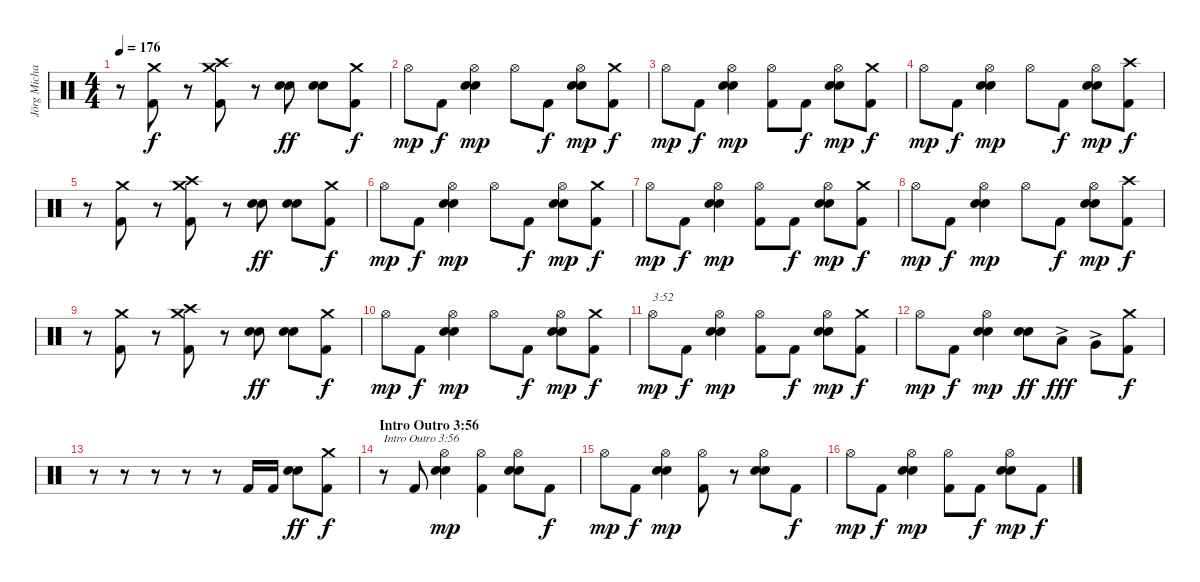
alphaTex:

\track ("Jörg Michael" "Jörg Micha") {instrument percussion}
\staff {score}
\articulation defaults
\ts (4 4)
\tempo 176
\clef neutral
\ks c
r.8{dy f} ("Kick (hit) 2" "Crash medium (hit)").8 r.8 ("Kick (hit) 2" "Crash high (hit)" "Crash medium (hit)").8 r.8 ("Snare (hit) 2" "Electric Snare (hit)").8{dy ff} ("Snare (hit) 2" "Electric Snare (hit)").8 ("Kick (hit) 2" "Crash medium (hit)").8{dy f} |
"Hi-Hat (open)".8{dy mp} "Kick (hit) 2".8{dy f} ("Snare (hit) 2" "Electric Snare (hit)" "Hi-Hat (open)").4{dy mp} "Hi-Hat (open)".8 "Kick (hit) 2".8{dy f} ("Snare (hit) 2" "Electric Snare (hit)" "Hi-Hat (open)").8{dy mp} ("Kick (hit) 2" "Crash medium (hit)").8{dy f} |
"Hi-Hat (open)".8{dy mp} "Kick (hit) 2".8{dy f} ("Snare (hit) 2" "Electric Snare (hit)" "Hi-Hat (open)").4{dy mp} ("Kick (hit) 2" "Hi-Hat (open)").8 "Kick (hit) 2".8{dy f} ("Snare (hit) 2" "Electric Snare (hit)" "Hi-Hat (open)").8{dy mp} ("Kick (hit) 2" "Crash medium (hit)").8{dy f} |
"Hi-Hat (open)".8{dy mp} "Kick (hit) 2".8{dy f} ("Snare (hit) 2" "Electric Snare (hit)" "Hi-Hat (open)").4{dy mp} "Hi-Hat (open)".8 "Kick (hit) 2".8{dy f} ("Snare (hit) 2" "Electric Snare (hit)" "Hi-Hat (open)").8{dy mp} ("Kick (hit) 2" "Crash high (hit)").8{dy f} |
r.8 ("Kick (hit) 2" "Crash medium (hit)").8 r.8 ("Kick (hit) 2" "Crash high (hit)" "Crash medium (hit)").8 r.8 ("Snare (hit) 2" "Electric Snare (hit)").8{dy ff} ("Snare (hit) 2" "Electric Snare (hit)").8 ("Kick (hit) 2" "Crash medium (hit)").8{dy f} |
"Hi-Hat (open)".8{dy mp} "Kick (hit) 2".8{dy f} ("Snare (hit) 2" "Electric Snare (hit)" "Hi-Hat (open)").4{dy mp} "Hi-Hat (open)".8 "Kick (hit) 2".8{dy f} ("Snare (hit) 2" "Electric Snare (hit)" "Hi-Hat (open)").8{dy mp} ("Kick (hit) 2" "Crash medium (hit)").8{dy f} |
"Hi-Hat (open)".8{dy mp} "Kick (hit) 2".8{dy f} ("Snare (hit) 2" "Electric Snare (hit)" "Hi-Hat (open)").4{dy mp} ("Kick (hit) 2" "Hi-Hat (open)").8 "Kick (hit) 2".8{dy f} ("Snare (hit) 2" "Electric Snare (hit)" "Hi-Hat (open)").8{dy mp} ("Kick (hit) 2" "Crash medium (hit)").8{dy f} |
"Hi-Hat (open)".8{dy mp} "Kick (hit) 2".8{dy f} ("Snare (hit) 2" "Electric Snare (hit)" "Hi-Hat (open)").4{dy mp} "Hi-Hat (open)".8 "Kick (hit) 2".8{dy f} ("Snare (hit) 2" "Electric Snare (hit)" "Hi-Hat (open)").8{dy mp} ("Kick (hit) 2" "Crash high (hit)").8{dy f} |
r.8 ("Kick (hit) 2" "Crash medium (hit)").8 r.8 ("Kick (hit) 2" "Crash high (hit)" "Crash medium (hit)").8 r.8 ("Snare (hit) 2" "Electric Snare (hit)").8{dy ff} ("Snare (hit) 2" "Electric Snare (hit)").8 ("Kick (hit) 2" "Crash medium (hit)").8{dy f} |
"Hi-Hat (open)".8{dy mp} "Kick (hit) 2".8{dy f} ("Snare (hit) 2" "Electric Snare (hit)" "Hi-Hat (open)").4{dy mp} "Hi-Hat (open)".8 "Kick (hit) 2".8{dy f} ("Snare (hit) 2" "Electric Snare (hit)" "Hi-Hat (open)").8{dy mp} ("Kick (hit) 2" "Crash medium (hit)").8{dy f} |
"Hi-Hat (open)".8{txt "3:52" dy mp} "Kick (hit) 2".8{dy f} ("Snare (hit) 2" "Electric Snare (hit)" "Hi-Hat (open)").4{dy mp} ("Kick (hit) 2" "Hi-Hat (open)").8 "Kick (hit) 2".8{dy f} ("Snare (hit) 2" "Electric Snare (hit)" "Hi-Hat (open)").8{dy mp} ("Kick (hit) 2" "Crash medium (hit)").8{dy f} |
"Hi-Hat (open)".8{dy mp} "Kick (hit) 2".8{dy f} ("Snare (hit) 2" "Electric Snare (hit)" "Hi-Hat (open)").4{dy mp} ("Snare (hit) 2" "Electric Snare (hit)").8{dy ff} "Low Tom (hit)"{ac}.8{dy fff} "Very Low Tom (hit)"{ac}.8 ("Kick (hit) 2" "Crash medium (hit)").8{dy f} |
r.8{volume 0} r.8 r.8 r.8 r.8 "Kick (hit) 2".16{volume 14} "Kick (hit) 2".16 ("Snare (hit) 2" "Electric Snare (hit)").8{dy ff} ("Kick (hit) 2" "Crash medium (hit)").8{dy f} |
\section ("" "Intro Outro 3:56")
r.8{txt "Intro Outro 3:56"} "Kick (hit) 2".8 ("Snare (hit) 2" "Electric Snare (hit)" "Hi-Hat (open)").4{dy mp} ("Kick (hit) 2" "Hi-Hat (open)").4 ("Snare (hit) 2" "Electric Snare (hit)" "Hi-Hat (open)").8 "Kick (hit) 2".8{dy f} |
"Hi-Hat (open)".8{dy mp} "Kick (hit) 2".8{dy f} ("Snare (hit) 2" "Electric Snare (hit)" "Hi-Hat (open)").4{dy mp} ("Kick (hit) 2" "Hi-Hat (open)").8 r.8 ("Snare (hit) 2" "Electric Snare (hit)" "Hi-Hat (open)").8 "Kick (hit) 2".8{dy f} |
"Hi-Hat (open)".8{dy mp} "Kick (hit) 2".8{dy f} ("Snare (hit) 2" "Electric Snare (hit)" "Hi-Hat (open)").4{dy mp} ("Kick (hit) 2" "Hi-Hat (open)").8 "Kick (hit) 2".8{dy f} ("Snare (hit) 2" "Electric Snare (hit)" "Hi-Hat (open)").8{dy mp} "Kick (hit) 2".8{dy f}
